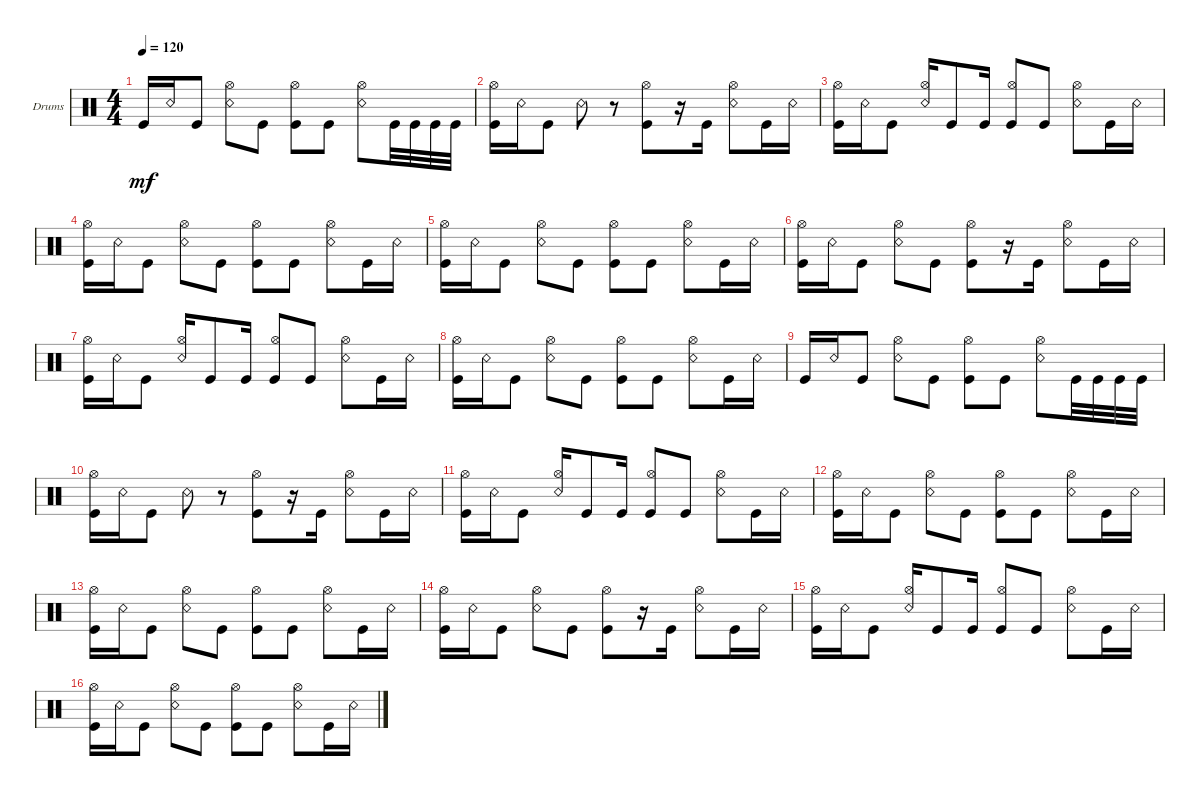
\defaultSystemsLayout 4
\bracketExtendMode groupsimilarinstruments
\firstSystemTrackNameOrientation horizontal
\otherSystemsTrackNameOrientation horizontal
\track ("Drumkit" "Drums") {instrument percussion}
\staff {score}
\articulation defaults
\ts (4 4)
\tempo 120
\clef neutral
\scale
0.333333
\ks c "Kick (hit)".16{dy mf} "Snare (rim shot)".16 "Kick (hit)".8
("Hi-Hat (open)" "Snare (rim shot)").8 "Kick (hit)".8 ("Kick (hit)" "Hi-Hat (open)").8 "Kick (hit)".8 ("Hi-Hat (open)" "Snare (rim shot)").8 "Kick (hit)".32 "Kick (hit)".32 "Kick (hit)".32 "Kick (hit)".32 |
\scale
0.333333 ("Kick (hit)" "Hi-Hat (open)").16 "Snare (rim shot)".16 "Kick (hit)".8 "Snare (rim shot)".8 r.8 ("Kick (hit)" "Hi-Hat (open)").8 r.16 "Kick (hit)".16 ("Hi-Hat (open)" "Snare (rim shot)").8 "Kick (hit)".16 "Snare (rim shot)".16 |
\scale
0.333333 ("Hi-Hat (open)" "Kick (hit)").16 "Snare (rim shot)".16 "Kick (hit)".8 ("Hi-Hat (open)" "Snare (rim shot)").16 "Kick (hit)".8 "Kick (hit)".16 ("Hi-Hat (open)" "Kick (hit)").8{beam invert} "Kick (hit)".8 ("Hi-Hat (open)" "Snare (rim shot)").8 "Kick (hit)".16 "Snare (rim shot)".16 |
\scale
0.333333 ("Kick (hit)" "Hi-Hat (open)").16 "Snare (rim shot)".16 "Kick (hit)".8 ("Hi-Hat (open)" "Snare (rim shot)").8 "Kick (hit)".8 ("Kick (hit)" "Hi-Hat (open)").8 "Kick (hit)".8 ("Hi-Hat (open)" "Snare (rim shot)").8 "Kick (hit)".16 "Snare (rim shot)".16 |
\scale
0.333333 ("Kick (hit)" "Hi-Hat (open)").16 "Snare (rim shot)".16 "Kick (hit)".8 ("Hi-Hat (open)" "Snare (rim shot)").8 "Kick (hit)".8 ("Kick (hit)" "Hi-Hat (open)").8 "Kick (hit)".8 ("Hi-Hat (open)" "Snare (rim shot)").8 "Kick (hit)".16 "Snare (rim shot)".16 |
\scale
0.333333 ("Kick (hit)" "Hi-Hat (open)").16 "Snare (rim shot)".16 "Kick (hit)".8 ("Hi-Hat (open)" "Snare (rim shot)").8 "Kick (hit)".8 ("Kick (hit)" "Hi-Hat (open)").8 r.16 "Kick (hit)".16 ("Hi-Hat (open)" "Snare (rim shot)").8 "Kick (hit)".16 "Snare (rim shot)".16 |
\scale
0.333333 ("Hi-Hat (open)" "Kick (hit)").16 "Snare (rim shot)".16 "Kick (hit)".8 ("Hi-Hat (open)" "Snare (rim shot)").16 "Kick (hit)".8 "Kick (hit)".16 ("Hi-Hat (open)" "Kick (hit)").8{beam invert} "Kick (hit)".8 ("Hi-Hat (open)" "Snare (rim shot)").8 "Kick (hit)".16 "Snare (rim shot)".16 |
\scale
0.333333 ("Kick (hit)" "Hi-Hat (open)").16 "Snare (rim shot)".16 "Kick (hit)".8 ("Hi-Hat (open)" "Snare (rim shot)").8 "Kick (hit)".8 ("Kick (hit)" "Hi-Hat (open)").8 "Kick (hit)".8 ("Hi-Hat (open)" "Snare (rim shot)").8 "Kick (hit)".16 "Snare (rim shot)".16 |
\scale
0.333333 "Kick (hit)".16 "Snare (rim shot)".16 "Kick (hit)".8 ("Hi-Hat (open)" "Snare (rim shot)").8 "Kick (hit)".8 ("Kick (hit)" "Hi-Hat (open)").8 "Kick (hit)".8 ("Hi-Hat (open)" "Snare (rim shot)").8 "Kick (hit)".32 "Kick (hit)".32 "Kick (hit)".32 "Kick (hit)".32 |
\scale
0.333333 ("Kick (hit)" "Hi-Hat (open)").16 "Snare (rim shot)".16 "Kick (hit)".8 "Snare (rim shot)".8 r.8 ("Kick (hit)" "Hi-Hat (open)").8 r.16 "Kick (hit)".16 ("Hi-Hat (open)" "Snare (rim shot)").8 "Kick (hit)".16 "Snare (rim shot)".16 |
\scale
0.333333 ("Hi-Hat (open)" "Kick (hit)").16 "Snare (rim shot)".16 "Kick (hit)".8 ("Hi-Hat (open)" "Snare (rim shot)").16 "Kick (hit)".8 "Kick (hit)".16 ("Hi-Hat (open)" "Kick (hit)").8{beam invert} "Kick (hit)".8 ("Hi-Hat (open)" "Snare (rim shot)").8 "Kick (hit)".16 "Snare (rim shot)".16 |
\scale
0.333333 ("Kick (hit)" "Hi-Hat (open)").16 "Snare (rim shot)".16 "Kick (hit)".8 ("Hi-Hat (open)" "Snare (rim shot)").8 "Kick (hit)".8 ("Kick (hit)" "Hi-Hat (open)").8 "Kick (hit)".8 ("Hi-Hat (open)" "Snare (rim shot)").8 "Kick (hit)".16 "Snare (rim shot)".16 |
\scale
0.333333 ("Kick (hit)" "Hi-Hat (open)").16 "Snare (rim shot)".16 "Kick (hit)".8 ("Hi-Hat (open)" "Snare (rim shot)").8 "Kick (hit)".8 ("Kick (hit)" "Hi-Hat (open)").8 "Kick (hit)".8 ("Hi-Hat (open)" "Snare (rim shot)").8 "Kick (hit)".16 "Snare (rim shot)".16 |
\scale
0.333333 ("Kick (hit)" "Hi-Hat (open)").16 "Snare (rim shot)".16 "Kick (hit)".8 ("Hi-Hat (open)" "Snare (rim shot)").8 "Kick (hit)".8 ("Kick (hit)" "Hi-Hat (open)").8 r.16 "Kick (hit)".16 ("Hi-Hat (open)" "Snare (rim shot)").8 "Kick (hit)".16 "Snare (rim shot)".16 |
\scale
0.333333 ("Hi-Hat (open)" "Kick (hit)").16 "Snare (rim shot)".16 "Kick (hit)".8 ("Hi-Hat (open)" "Snare (rim shot)").16 "Kick (hit)".8 "Kick (hit)".16 ("Hi-Hat (open)" "Kick (hit)").8{beam invert} "Kick (hit)".8 ("Hi-Hat (open)" "Snare (rim shot)").8 "Kick (hit)".16 "Snare (rim shot)".16 |
\scale
0.333333 ("Kick (hit)" "Hi-Hat (open)").16 "Snare (rim shot)".16 "Kick (hit)".8 ("Hi-Hat (open)" "Snare (rim shot)").8 "Kick (hit)".8 ("Kick (hit)" "Hi-Hat (open)").8 "Kick (hit)".8 ("Hi-Hat (open)" "Snare (rim shot)").8 "Kick (hit)".16 "Snare (rim shot)".16
